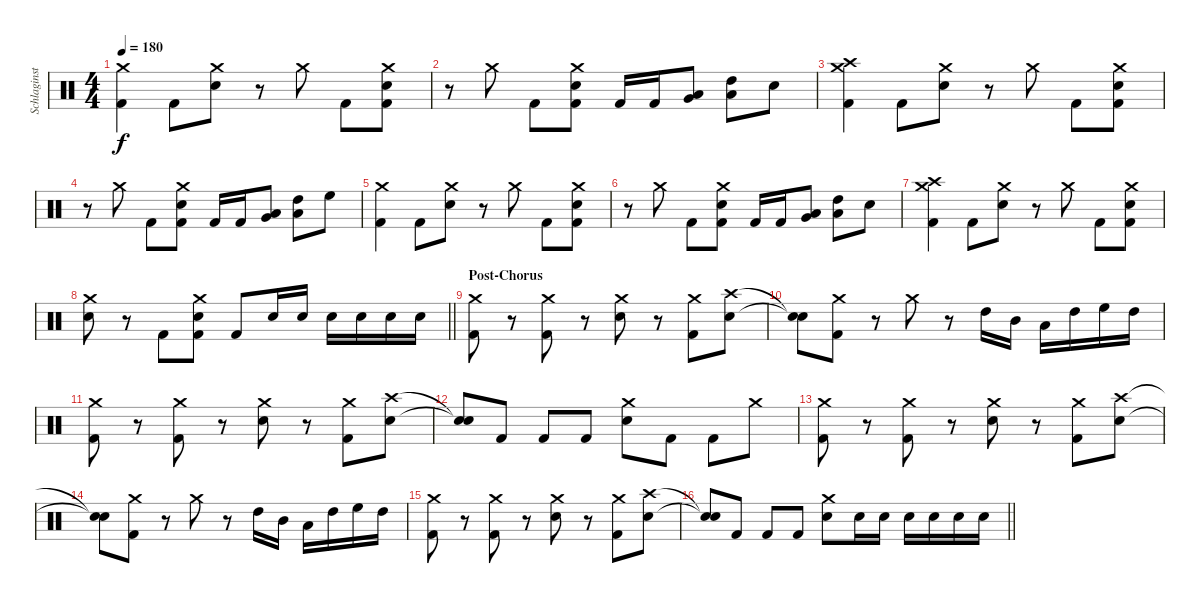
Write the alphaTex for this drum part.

\track ("Schlaginstrumente - Auswahl" "Schlaginst") {instrument percussion}
\staff {score}
\articulation defaults
\ts (4 4)
\tempo 180
\clef neutral
\ks c
("Crash medium (hit)" "Kick (hit) 2").4{dy f} "Kick (hit) 2".8 ("Crash medium (hit)" "Electric Snare (hit)").8 r.8 "Crash medium (hit)".8 "Kick (hit) 2".8 ("Crash medium (hit)" "Electric Snare (hit)" "Kick (hit) 2").8 |
r.8 "Crash medium (hit)".8 "Kick (hit) 2".8 ("Crash medium (hit)" "Electric Snare (hit)" "Kick (hit) 2").8 "Kick (hit) 2".16 "Kick (hit) 2".16 ("Very Low Tom (hit)" "Low Tom (hit)").8 ("High Tom (hit)" "Low Tom (hit)").8 "Electric Snare (hit)".8 |
("Crash medium (hit)" "Crash high (hit)" "Kick (hit) 2").4 "Kick (hit) 2".8 ("Crash medium (hit)" "Electric Snare (hit)").8 r.8 "Crash medium (hit)".8 "Kick (hit) 2".8 ("Crash medium (hit)" "Electric Snare (hit)" "Kick (hit) 2").8 |
r.8 "Crash medium (hit)".8 "Kick (hit) 2".8 ("Crash medium (hit)" "Electric Snare (hit)" "Kick (hit) 2").8 "Kick (hit) 2".16 "Kick (hit) 2".16 ("Very Low Tom (hit)" "Low Tom (hit)").8 ("High Tom (hit)" "Low Tom (hit)").8 "High Floor Tom (hit)".8 |
("Crash medium (hit)" "Kick (hit) 2").4 "Kick (hit) 2".8 ("Crash medium (hit)" "Electric Snare (hit)").8 r.8 "Crash medium (hit)".8 "Kick (hit) 2".8 ("Crash medium (hit)" "Electric Snare (hit)" "Kick (hit) 2").8 |
r.8 "Crash medium (hit)".8 "Kick (hit) 2".8 ("Crash medium (hit)" "Electric Snare (hit)" "Kick (hit) 2").8 "Kick (hit) 2".16 "Kick (hit) 2".16 ("Very Low Tom (hit)" "Low Tom (hit)").8 ("High Tom (hit)" "Low Tom (hit)").8 "Electric Snare (hit)".8 |
("Crash medium (hit)" "Crash high (hit)" "Kick (hit) 2").4 "Kick (hit) 2".8 ("Crash medium (hit)" "Electric Snare (hit)").8 r.8 "Crash medium (hit)".8 "Kick (hit) 2".8 ("Crash medium (hit)" "Electric Snare (hit)" "Kick (hit) 2").8 |
\barLineRight lightlight
("Crash medium (hit)" "Electric Snare (hit)").8 r.8 "Kick (hit) 2".8 ("Crash medium (hit)" "Electric Snare (hit)" "Kick (hit) 2").8 "Kick (hit) 2".8 "Electric Snare (hit)".16 "Electric Snare (hit)".16 "Electric Snare (hit)".16 "Electric Snare (hit)".16 "Electric Snare (hit)".16 "Electric Snare (hit)".16 |
\section ("" "Post-Chorus")
("Crash medium (hit)" "Kick (hit) 2").8 r.8 ("Crash medium (hit)" "Kick (hit) 2").8 r.8 ("Crash medium (hit)" "Electric Snare (hit)").8 r.8 ("Crash medium (hit)" "Kick (hit) 2").8 ("Crash high (hit)" "Electric Snare (hit)").8 |
("Snare (hit)"{t} "Snare (hit)"{t}).8 ("Crash medium (hit)" "Kick (hit) 2").8 r.8 "Crash medium (hit)".8 r.8 "High Tom (hit)".16 "Mid Tom (hit)".16 "Low Tom (hit)".16 "High Tom (hit)".16 "High Floor Tom (hit)".16 "High Tom (hit)".16 |
("Crash medium (hit)" "Kick (hit) 2").8 r.8 ("Crash medium (hit)" "Kick (hit) 2").8 r.8 ("Crash medium (hit)" "Electric Snare (hit)").8 r.8 ("Crash medium (hit)" "Kick (hit) 2").8 ("Crash high (hit)" "Electric Snare (hit)").8 |
("Snare (hit)"{t} "Snare (hit)"{t}).8 "Kick (hit) 2".8 "Kick (hit) 2".8 "Kick (hit) 2".8 ("Crash medium (hit)" "Electric Snare (hit)").8 "Kick (hit) 2".8 "Kick (hit) 2".8 "Crash medium (hit)".8 |
("Crash medium (hit)" "Kick (hit) 2").8 r.8 ("Crash medium (hit)" "Kick (hit) 2").8 r.8 ("Crash medium (hit)" "Electric Snare (hit)").8 r.8 ("Crash medium (hit)" "Kick (hit) 2").8 ("Crash high (hit)" "Electric Snare (hit)").8 |
("Snare (hit)"{t} "Snare (hit)"{t}).8 ("Crash medium (hit)" "Kick (hit) 2").8 r.8 "Crash medium (hit)".8 r.8 "High Tom (hit)".16 "Mid Tom (hit)".16 "Low Tom (hit)".16 "High Tom (hit)".16 "High Floor Tom (hit)".16 "High Tom (hit)".16 |
("Crash medium (hit)" "Kick (hit) 2").8 r.8 ("Crash medium (hit)" "Kick (hit) 2").8 r.8 ("Crash medium (hit)" "Electric Snare (hit)").8 r.8 ("Crash medium (hit)" "Kick (hit) 2").8 ("Crash high (hit)" "Electric Snare (hit)").8 |
\barLineRight lightlight
("Snare (hit)"{t} "Snare (hit)"{t}).8 "Kick (hit) 2".8 "Kick (hit) 2".8 "Kick (hit) 2".8 ("Crash medium (hit)" "Electric Snare (hit)").8 "Electric Snare (hit)".16 "Electric Snare (hit)".16 "Electric Snare (hit)".16 "Electric Snare (hit)".16 "Electric Snare (hit)".16 "Electric Snare (hit)".16
